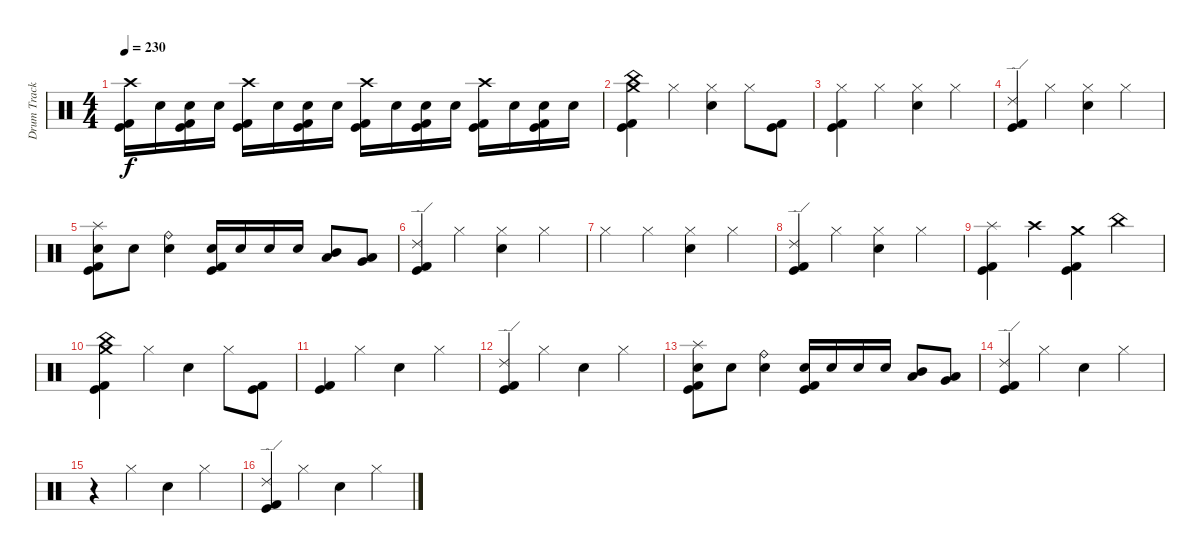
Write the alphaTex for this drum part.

\track ("Drum Track" "Drum Track") {instrument percussion}
\staff {score}
\articulation defaults
\ts (4 4)
\tempo 230
\clef neutral
\ks c
("Crash high (hit)" "Kick (hit) 2" "Kick (hit)").16{dy f} "Electric Snare (hit)".16 ("Electric Snare (hit)" "Kick (hit) 2" "Kick (hit)").16 "Electric Snare (hit)".16 ("Crash high (hit)" "Kick (hit) 2" "Kick (hit)").16 "Electric Snare (hit)".16 ("Electric Snare (hit)" "Kick (hit) 2" "Kick (hit)").16 "Electric Snare (hit)".16 ("Crash high (hit)" "Kick (hit) 2" "Kick (hit)").16 "Electric Snare (hit)".16 ("Electric Snare (hit)" "Kick (hit) 2" "Kick (hit)").16 "Electric Snare (hit)".16 ("Crash high (hit)" "Kick (hit) 2" "Kick (hit)").16 "Electric Snare (hit)".16 ("Electric Snare (hit)" "Kick (hit) 2" "Kick (hit)").16 "Electric Snare (hit)".16 |
("China (hit)" "Crash medium (hit)" "Kick (hit) 2" "Kick (hit)").4 "Hi-Hat (closed)".4 ("Hi-Hat (closed)" "Electric Snare (hit)").4 "Hi-Hat (closed)".8 ("Kick (hit) 2" "Kick (hit)").8 |
("Hi-Hat (closed)" "Kick (hit) 2" "Kick (hit)").4 "Hi-Hat (closed)".4 ("Hi-Hat (closed)" "Electric Snare (hit)").4 "Hi-Hat (closed)".4 |
("Ride (edge) 2" "Kick (hit) 2" "Kick (hit)").4 "Hi-Hat (closed)".4 ("Hi-Hat (closed)" "Electric Snare (hit)").4 "Hi-Hat (closed)".4 |
("Splash (hit)" "Electric Snare (hit)" "Kick (hit) 2" "Kick (hit)").8 "Electric Snare (hit)".8 ("Ride (bell)" "Electric Snare (hit)").4 ("Electric Snare (hit)" "Kick (hit) 2" "Kick (hit)").16 "Electric Snare (hit)".16 "Electric Snare (hit)".16 "Electric Snare (hit)".16 ("Mid Tom (hit)" "Low Tom (hit)").8 ("Low Tom (hit)" "Very Low Tom (hit)").8 |
("Ride (edge) 2" "Kick (hit) 2" "Kick (hit)").4 "Hi-Hat (closed)".4 ("Hi-Hat (closed)" "Electric Snare (hit)").4 "Hi-Hat (closed)".4 |
"Hi-Hat (closed)".4 "Hi-Hat (closed)".4 ("Hi-Hat (closed)" "Electric Snare (hit)").4 "Hi-Hat (closed)".4 |
("Ride (edge) 2" "Kick (hit) 2" "Kick (hit)").4 "Hi-Hat (closed)".4 ("Hi-Hat (closed)" "Electric Snare (hit)").4 "Hi-Hat (closed)".4 |
("Splash (hit)" "Kick (hit) 2" "Kick (hit)").4 "Crash high (hit)".4 ("Crash medium (hit)" "Kick (hit) 2" "Kick (hit)").4 "China (hit)".4 |
("China (hit)" "Crash medium (hit)" "Kick (hit) 2" "Kick (hit)").4 "Hi-Hat (closed)".4 "Electric Snare (hit)".4 "Hi-Hat (closed)".8 ("Kick (hit) 2" "Kick (hit)").8 |
("Kick (hit) 2" "Kick (hit)").4 "Hi-Hat (closed)".4 "Electric Snare (hit)".4 "Hi-Hat (closed)".4 |
("Ride (edge) 2" "Kick (hit) 2" "Kick (hit)").4 "Hi-Hat (closed)".4 "Electric Snare (hit)".4 "Hi-Hat (closed)".4 |
("Splash (hit)" "Electric Snare (hit)" "Kick (hit) 2" "Kick (hit)").8 "Electric Snare (hit)".8 ("Ride (bell)" "Electric Snare (hit)").4 ("Electric Snare (hit)" "Kick (hit) 2" "Kick (hit)").16 "Electric Snare (hit)".16 "Electric Snare (hit)".16 "Electric Snare (hit)".16 ("Mid Tom (hit)" "Low Tom (hit)").8 ("Low Tom (hit)" "Very Low Tom (hit)").8 |
("Ride (edge) 2" "Kick (hit) 2" "Kick (hit)").4 "Hi-Hat (closed)".4 "Electric Snare (hit)".4 "Hi-Hat (closed)".4 |
r.4 "Hi-Hat (closed)".4 "Electric Snare (hit)".4 "Hi-Hat (closed)".4 |
("Ride (edge) 2" "Kick (hit) 2" "Kick (hit)").4 "Hi-Hat (closed)".4 "Electric Snare (hit)".4 "Hi-Hat (closed)".4
